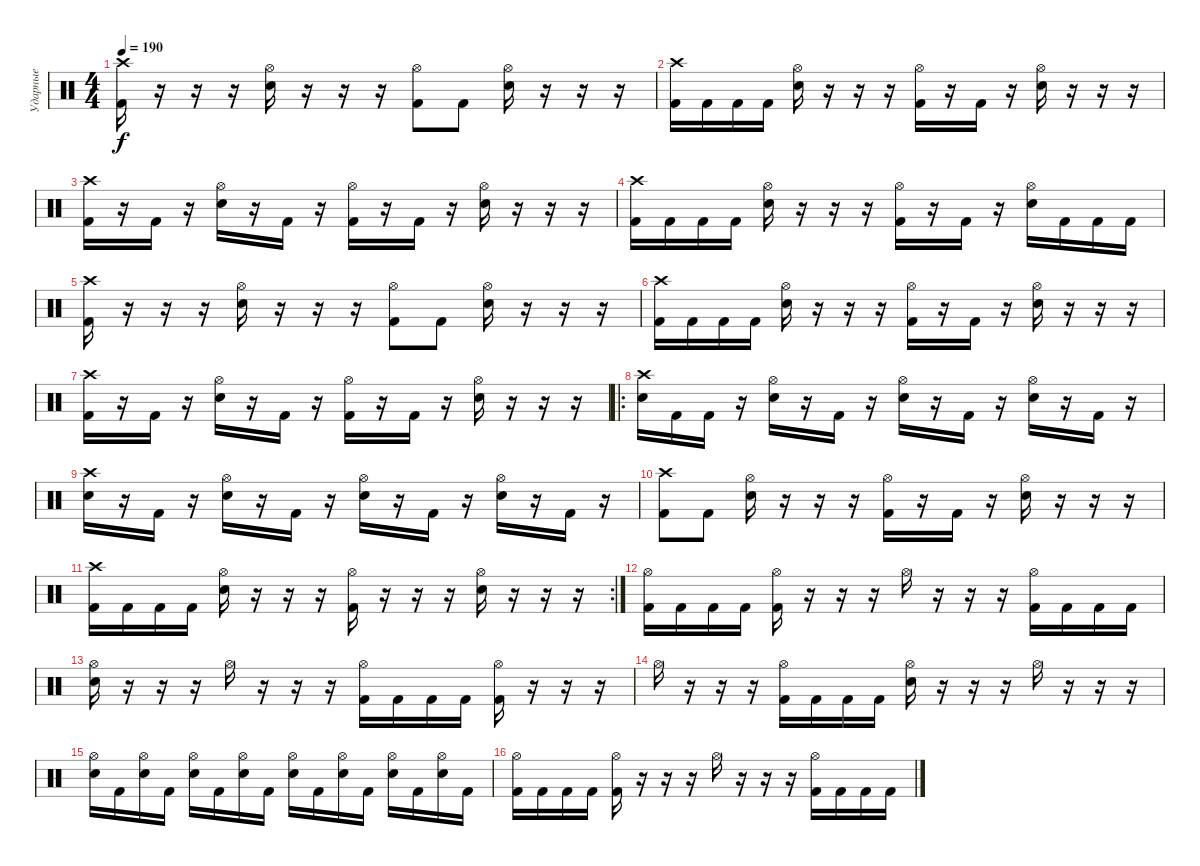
\track ("Ударные" "Ударные") {instrument percussion}
\staff {score}
\articulation defaults
\ts (4 4)
\tempo 190
\clef neutral
\ks c
("Crash high (hit)" "Kick (hit) 2").16{dy f} r.16 r.16 r.16 ("Hi-Hat (open)" "Electric Snare (hit)").16 r.16 r.16 r.16 ("Hi-Hat (open)" "Kick (hit) 2").8 "Kick (hit) 2".8 ("Hi-Hat (open)" "Electric Snare (hit)").16 r.16 r.16 r.16 |
("Crash high (hit)" "Kick (hit) 2").16 "Kick (hit) 2".16 "Kick (hit) 2".16 "Kick (hit) 2".16 ("Hi-Hat (open)" "Electric Snare (hit)").16 r.16 r.16 r.16 ("Hi-Hat (open)" "Kick (hit) 2").16 r.16 "Kick (hit) 2".16 r.16 ("Hi-Hat (open)" "Electric Snare (hit)").16 r.16 r.16 r.16 |
("Crash high (hit)" "Kick (hit) 2").16 r.16 "Kick (hit) 2".16 r.16 ("Hi-Hat (open)" "Electric Snare (hit)").16 r.16 "Kick (hit) 2".16 r.16 ("Hi-Hat (open)" "Kick (hit) 2").16 r.16 "Kick (hit) 2".16 r.16 ("Hi-Hat (open)" "Electric Snare (hit)").16 r.16 r.16 r.16 |
("Crash high (hit)" "Kick (hit) 2").16 "Kick (hit) 2".16 "Kick (hit) 2".16 "Kick (hit) 2".16 ("Hi-Hat (open)" "Electric Snare (hit)").16 r.16 r.16 r.16 ("Hi-Hat (open)" "Kick (hit) 2").16 r.16 "Kick (hit) 2".16 r.16 ("Hi-Hat (open)" "Electric Snare (hit)").16 "Kick (hit) 2".16 "Kick (hit) 2".16 "Kick (hit) 2".16 |
("Crash high (hit)" "Kick (hit) 2").16 r.16 r.16 r.16 ("Hi-Hat (open)" "Electric Snare (hit)").16 r.16 r.16 r.16 ("Hi-Hat (open)" "Kick (hit) 2").8 "Kick (hit) 2".8 ("Hi-Hat (open)" "Electric Snare (hit)").16 r.16 r.16 r.16 |
("Crash high (hit)" "Kick (hit) 2").16 "Kick (hit) 2".16 "Kick (hit) 2".16 "Kick (hit) 2".16 ("Hi-Hat (open)" "Electric Snare (hit)").16 r.16 r.16 r.16 ("Hi-Hat (open)" "Kick (hit) 2").16 r.16 "Kick (hit) 2".16 r.16 ("Hi-Hat (open)" "Electric Snare (hit)").16 r.16 r.16 r.16 |
("Crash high (hit)" "Kick (hit) 2").16 r.16 "Kick (hit) 2".16 r.16 ("Hi-Hat (open)" "Electric Snare (hit)").16 r.16 "Kick (hit) 2".16 r.16 ("Hi-Hat (open)" "Kick (hit) 2").16 r.16 "Kick (hit) 2".16 r.16 ("Hi-Hat (open)" "Electric Snare (hit)").16 r.16 r.16 r.16 |
\ro
("Crash high (hit)" "Electric Snare (hit)").16 "Kick (hit) 2".16 "Kick (hit) 2".16 r.16 ("Hi-Hat (open)" "Electric Snare (hit)").16 r.16 "Kick (hit) 2".16 r.16 ("Hi-Hat (open)" "Electric Snare (hit)").16 r.16 "Kick (hit) 2".16 r.16 ("Hi-Hat (open)" "Electric Snare (hit)").16 r.16 "Kick (hit) 2".16 r.16 |
("Crash high (hit)" "Electric Snare (hit)").16 r.16 "Kick (hit) 2".16 r.16 ("Hi-Hat (open)" "Electric Snare (hit)").16 r.16 "Kick (hit) 2".16 r.16 ("Hi-Hat (open)" "Electric Snare (hit)").16 r.16 "Kick (hit) 2".16 r.16 ("Hi-Hat (open)" "Electric Snare (hit)").16 r.16 "Kick (hit) 2".16 r.16 |
("Crash high (hit)" "Kick (hit) 2").8 "Kick (hit) 2".8 ("Hi-Hat (open)" "Electric Snare (hit)").16 r.16 r.16 r.16 ("Hi-Hat (open)" "Kick (hit) 2").16 r.16 "Kick (hit) 2".16 r.16 ("Hi-Hat (open)" "Electric Snare (hit)").16 r.16 r.16 r.16 |
\rc 2
("Crash high (hit)" "Kick (hit) 2").16 "Kick (hit) 2".16 "Kick (hit) 2".16 "Kick (hit) 2".16 ("Hi-Hat (open)" "Electric Snare (hit)").16 r.16 r.16 r.16 ("Hi-Hat (open)" "Kick (hit) 2").16 r.16 r.16 r.16 ("Hi-Hat (open)" "Electric Snare (hit)").16 r.16 r.16 r.16 |
("Hi-Hat (open)" "Kick (hit) 2").16 "Kick (hit) 2".16 "Kick (hit) 2".16 "Kick (hit) 2".16 ("Hi-Hat (open)" "Kick (hit) 2").16 r.16 r.16 r.16 "Hi-Hat (open)".16 r.16 r.16 r.16 ("Hi-Hat (open)" "Kick (hit) 2").16 "Kick (hit) 2".16 "Kick (hit) 2".16 "Kick (hit) 2".16 |
("Hi-Hat (open)" "Electric Snare (hit)").16 r.16 r.16 r.16 "Hi-Hat (open)".16 r.16 r.16 r.16 ("Hi-Hat (open)" "Kick (hit) 2").16 "Kick (hit) 2".16 "Kick (hit) 2".16 "Kick (hit) 2".16 ("Hi-Hat (open)" "Kick (hit) 2").16 r.16 r.16 r.16 |
"Hi-Hat (open)".16 r.16 r.16 r.16 ("Hi-Hat (open)" "Kick (hit) 2").16 "Kick (hit) 2".16 "Kick (hit) 2".16 "Kick (hit) 2".16 ("Hi-Hat (open)" "Electric Snare (hit)").16 r.16 r.16 r.16 "Hi-Hat (open)".16 r.16 r.16 r.16 |
("Hi-Hat (open)" "Electric Snare (hit)").16 "Kick (hit) 2".16 ("Hi-Hat (open)" "Electric Snare (hit)").16 "Kick (hit) 2".16 ("Hi-Hat (open)" "Electric Snare (hit)").16 "Kick (hit) 2".16 ("Hi-Hat (open)" "Electric Snare (hit)").16 "Kick (hit) 2".16 ("Hi-Hat (open)" "Electric Snare (hit)").16 "Kick (hit) 2".16 ("Hi-Hat (open)" "Electric Snare (hit)").16 "Kick (hit) 2".16 ("Hi-Hat (open)" "Electric Snare (hit)").16 "Kick (hit) 2".16 ("Hi-Hat (open)" "Electric Snare (hit)").16 "Kick (hit) 2".16 |
("Hi-Hat (open)" "Kick (hit) 2").16 "Kick (hit) 2".16 "Kick (hit) 2".16 "Kick (hit) 2".16 ("Hi-Hat (open)" "Kick (hit) 2").16 r.16 r.16 r.16 "Hi-Hat (open)".16 r.16 r.16 r.16 ("Hi-Hat (open)" "Kick (hit) 2").16 "Kick (hit) 2".16 "Kick (hit) 2".16 "Kick (hit) 2".16
